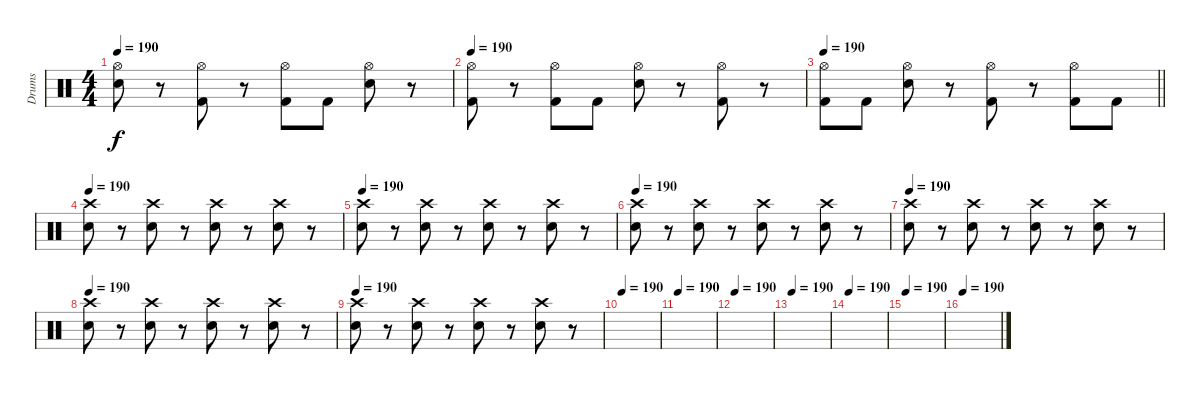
\track ("Drums" "Drums") {instrument percussion}
\staff {score}
\articulation defaults
\ts (4 4)
\tempo 190
\clef neutral
\ks c
("Hi-Hat (open)" "Electric Snare (hit)").8{dy f} r.8 ("Hi-Hat (open)" "Kick (hit) 2").8 r.8 ("Hi-Hat (open)" "Kick (hit) 2").8 "Kick (hit) 2".8 ("Hi-Hat (open)" "Electric Snare (hit)").8 r.8 |
\tempo 190
("Hi-Hat (open)" "Kick (hit) 2").8 r.8 ("Hi-Hat (open)" "Kick (hit) 2").8 "Kick (hit) 2".8 ("Hi-Hat (open)" "Electric Snare (hit)").8 r.8 ("Hi-Hat (open)" "Kick (hit) 2").8 r.8 |
\tempo 190
\barLineRight lightlight
("Hi-Hat (open)" "Kick (hit) 2").8 "Kick (hit) 2".8 ("Hi-Hat (open)" "Electric Snare (hit)").8 r.8 ("Hi-Hat (open)" "Kick (hit) 2").8 r.8 ("Hi-Hat (open)" "Kick (hit) 2").8 "Kick (hit) 2".8 |
\section ("" "")
\tempo 190
("Crash high (hit)" "Electric Snare (hit)").8 r.8 ("Crash high (hit)" "Electric Snare (hit)").8 r.8 ("Crash high (hit)" "Electric Snare (hit)").8 r.8 ("Crash high (hit)" "Electric Snare (hit)").8 r.8 |
\tempo 190
("Crash high (hit)" "Electric Snare (hit)").8 r.8 ("Crash high (hit)" "Electric Snare (hit)").8 r.8 ("Crash high (hit)" "Electric Snare (hit)").8 r.8 ("Crash high (hit)" "Electric Snare (hit)").8 r.8 |
\tempo 190
("Crash high (hit)" "Electric Snare (hit)").8 r.8 ("Crash high (hit)" "Electric Snare (hit)").8 r.8 ("Crash high (hit)" "Electric Snare (hit)").8 r.8 ("Crash high (hit)" "Electric Snare (hit)").8 r.8 |
\tempo 190
("Crash high (hit)" "Electric Snare (hit)").8 r.8 ("Crash high (hit)" "Electric Snare (hit)").8 r.8 ("Crash high (hit)" "Electric Snare (hit)").8 r.8 ("Crash high (hit)" "Electric Snare (hit)").8 r.8 |
\tempo 190
("Crash high (hit)" "Electric Snare (hit)").8 r.8 ("Crash high (hit)" "Electric Snare (hit)").8 r.8 ("Crash high (hit)" "Electric Snare (hit)").8 r.8 ("Crash high (hit)" "Electric Snare (hit)").8 r.8 |
\tempo 190
("Crash high (hit)" "Electric Snare (hit)").8 r.8 ("Crash high (hit)" "Electric Snare (hit)").8 r.8 ("Crash high (hit)" "Electric Snare (hit)").8 r.8 ("Crash high (hit)" "Electric Snare (hit)").8 r.8 |
\tempo 190
|
\tempo 190
|
\tempo 190
|
\tempo 190
|
\tempo 190
|
\tempo 190
|
\tempo 190
